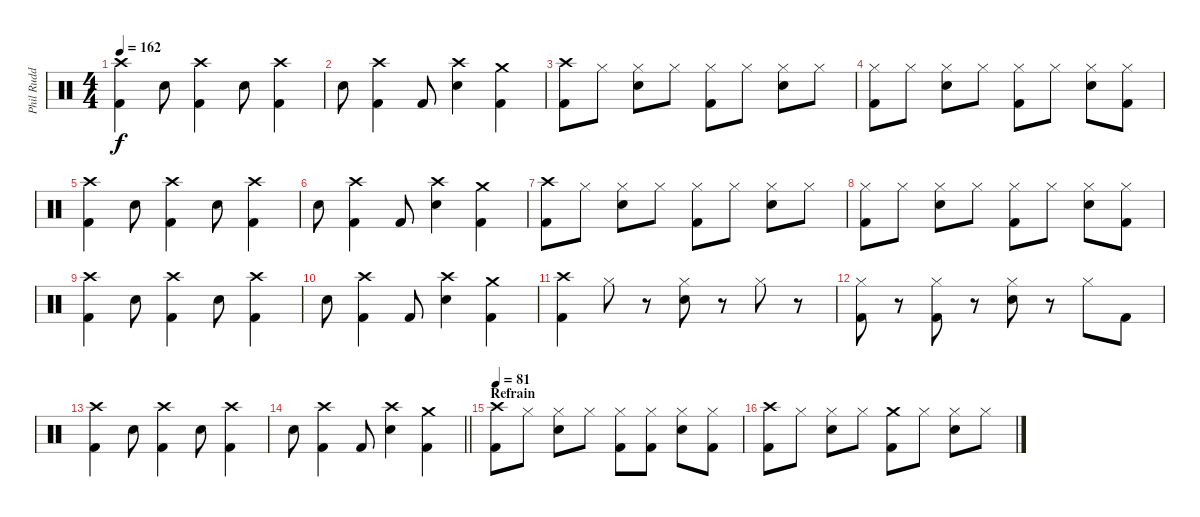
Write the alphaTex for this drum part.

\track ("Phil Rudd" "Phil Rudd") {instrument percussion}
\staff {score}
\articulation defaults
\ts (4 4)
\tempo 162
\clef neutral
\ks c
("Crash high (hit)" "Kick (hit) 2").4{dy f} "Snare (hit) 2".8 ("Crash high (hit)" "Kick (hit) 2").4 "Snare (hit) 2".8 ("Crash high (hit)" "Kick (hit) 2").4 |
"Snare (hit) 2".8 ("Crash high (hit)" "Kick (hit) 2").4 "Kick (hit) 2".8 ("Crash high (hit)" "Snare (hit) 2").4 ("Crash medium (hit)" "Kick (hit) 2").4 |
("Crash high (hit)" "Kick (hit) 2").8 "Hi-Hat (closed)".8 ("Hi-Hat (closed)" "Snare (hit) 2").8 "Hi-Hat (closed)".8 ("Hi-Hat (closed)" "Kick (hit) 2").8 "Hi-Hat (closed)".8 ("Hi-Hat (closed)" "Snare (hit) 2").8 "Hi-Hat (closed)".8 |
("Hi-Hat (closed)" "Kick (hit) 2").8 "Hi-Hat (closed)".8 ("Hi-Hat (closed)" "Snare (hit) 2").8 "Hi-Hat (closed)".8 ("Hi-Hat (closed)" "Kick (hit) 2").8 "Hi-Hat (closed)".8 ("Hi-Hat (closed)" "Snare (hit) 2").8 ("Hi-Hat (closed)" "Kick (hit) 2").8 |
("Crash high (hit)" "Kick (hit) 2").4 "Snare (hit) 2".8 ("Crash high (hit)" "Kick (hit) 2").4 "Snare (hit) 2".8 ("Crash high (hit)" "Kick (hit) 2").4 |
"Snare (hit) 2".8 ("Crash high (hit)" "Kick (hit) 2").4 "Kick (hit) 2".8 ("Crash high (hit)" "Snare (hit) 2").4 ("Crash medium (hit)" "Kick (hit) 2").4 |
("Crash high (hit)" "Kick (hit) 2").8 "Hi-Hat (closed)".8 ("Hi-Hat (closed)" "Snare (hit) 2").8 "Hi-Hat (closed)".8 ("Hi-Hat (closed)" "Kick (hit) 2").8 "Hi-Hat (closed)".8 ("Hi-Hat (closed)" "Snare (hit) 2").8 "Hi-Hat (closed)".8 |
("Hi-Hat (closed)" "Kick (hit) 2").8 "Hi-Hat (closed)".8 ("Hi-Hat (closed)" "Snare (hit) 2").8 "Hi-Hat (closed)".8 ("Hi-Hat (closed)" "Kick (hit) 2").8 "Hi-Hat (closed)".8 ("Hi-Hat (closed)" "Snare (hit) 2").8 ("Hi-Hat (closed)" "Kick (hit) 2").8 |
("Crash high (hit)" "Kick (hit) 2").4 "Snare (hit) 2".8 ("Crash high (hit)" "Kick (hit) 2").4 "Snare (hit) 2".8 ("Crash high (hit)" "Kick (hit) 2").4 |
"Snare (hit) 2".8 ("Crash high (hit)" "Kick (hit) 2").4 "Kick (hit) 2".8 ("Crash high (hit)" "Snare (hit) 2").4 ("Crash medium (hit)" "Kick (hit) 2").4 |
("Crash high (hit)" "Kick (hit) 2").4 "Hi-Hat (closed)".8 r.8 ("Hi-Hat (closed)" "Snare (hit) 2").8 r.8 "Hi-Hat (closed)".8 r.8 |
("Hi-Hat (closed)" "Kick (hit) 2").8 r.8 ("Hi-Hat (closed)" "Kick (hit) 2").8 r.8 ("Hi-Hat (closed)" "Snare (hit) 2").8 r.8 "Hi-Hat (closed)".8 "Kick (hit) 2".8 |
("Crash high (hit)" "Kick (hit) 2").4 "Snare (hit) 2".8 ("Crash high (hit)" "Kick (hit) 2").4 "Snare (hit) 2".8 ("Crash high (hit)" "Kick (hit) 2").4 |
\barLineRight lightlight "Snare (hit) 2".8
("Crash high (hit)" "Kick (hit) 2").4 "Kick (hit) 2".8 ("Crash high (hit)" "Snare (hit) 2").4 ("Crash medium (hit)" "Kick (hit) 2").4 |
\section ("" "Refrain")
\tempo 81
("Crash high (hit)" "Kick (hit) 2").8 "Hi-Hat (closed)".8 ("Hi-Hat (closed)" "Snare (hit) 2").8 "Hi-Hat (closed)".8 ("Hi-Hat (closed)" "Kick (hit) 2").8 ("Hi-Hat (closed)" "Kick (hit) 2").8 ("Hi-Hat (closed)" "Snare (hit) 2").8 ("Hi-Hat (closed)" "Kick (hit) 2").8 |
("Crash high (hit)" "Kick (hit) 2").8 "Hi-Hat (closed)".8 ("Hi-Hat (closed)" "Snare (hit) 2").8 "Hi-Hat (closed)".8 ("Crash medium (hit)" "Kick (hit) 2").8 "Hi-Hat (closed)".8 ("Hi-Hat (closed)" "Snare (hit) 2").8 "Hi-Hat (closed)".8
